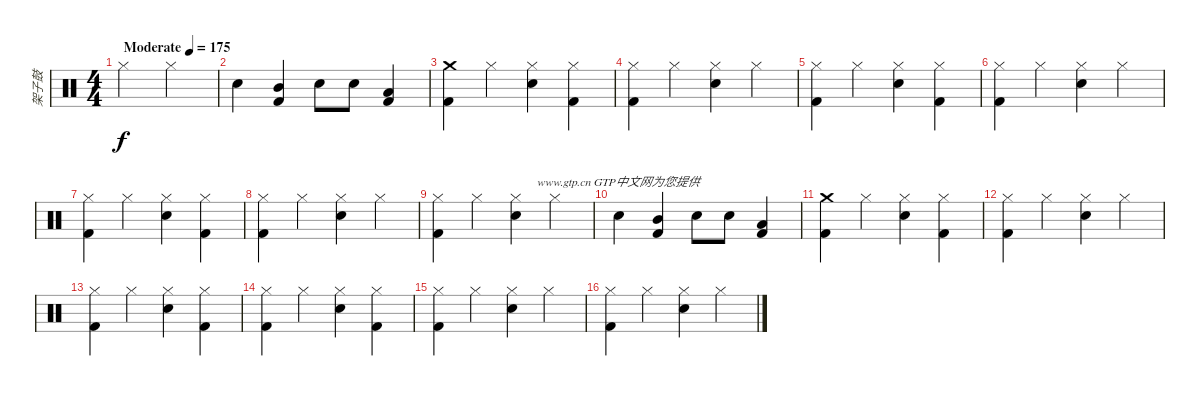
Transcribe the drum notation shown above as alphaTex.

\track ("架子鼓" "架子鼓") {instrument percussion}
\staff {score}
\articulation defaults
\ts (4 4)
\tempo (175 "Moderate")
\clef neutral
\ks c "Hi-Hat (closed)".2{dy f} "Hi-Hat (closed)".2
|
"Electric Snare (hit)".4 ("Kick (hit) 2" "Mid Tom (hit)").4 "Electric Snare (hit)".8 "Electric Snare (hit)".8 ("Kick (hit) 2" "Low Tom (hit)").4 |
("Crash medium (hit)" "Kick (hit) 2").4 "Hi-Hat (closed)".4 ("Hi-Hat (closed)" "Electric Snare (hit)").4 ("Hi-Hat (closed)" "Kick (hit) 2").4 |
("Hi-Hat (closed)" "Kick (hit) 2").4 "Hi-Hat (closed)".4 ("Hi-Hat (closed)" "Electric Snare (hit)").4 "Hi-Hat (closed)".4 |
("Hi-Hat (closed)" "Kick (hit) 2").4 "Hi-Hat (closed)".4 ("Hi-Hat (closed)" "Electric Snare (hit)").4 ("Hi-Hat (closed)" "Kick (hit) 2").4 |
("Hi-Hat (closed)" "Kick (hit) 2").4 "Hi-Hat (closed)".4 ("Hi-Hat (closed)" "Electric Snare (hit)").4 "Hi-Hat (closed)".4 |
("Hi-Hat (closed)" "Kick (hit) 2").4 "Hi-Hat (closed)".4 ("Hi-Hat (closed)" "Electric Snare (hit)").4 ("Hi-Hat (closed)" "Kick (hit) 2").4 |
("Hi-Hat (closed)" "Kick (hit) 2").4 "Hi-Hat (closed)".4 ("Hi-Hat (closed)" "Electric Snare (hit)").4 "Hi-Hat (closed)".4 |
("Hi-Hat (closed)" "Kick (hit) 2").4 "Hi-Hat (closed)".4{txt "                    www.gtp.cn GTP中文网为您提供"} ("Hi-Hat (closed)" "Electric Snare (hit)").4 "Hi-Hat (closed)".4 |
"Electric Snare (hit)".4 ("Kick (hit) 2" "Mid Tom (hit)").4 "Electric Snare (hit)".8 "Electric Snare (hit)".8 ("Kick (hit) 2" "Low Tom (hit)").4 |
("Crash medium (hit)" "Kick (hit) 2").4 "Hi-Hat (closed)".4 ("Hi-Hat (closed)" "Electric Snare (hit)").4 ("Hi-Hat (closed)" "Kick (hit) 2").4 |
("Hi-Hat (closed)" "Kick (hit) 2").4 "Hi-Hat (closed)".4 ("Hi-Hat (closed)" "Electric Snare (hit)").4 "Hi-Hat (closed)".4 |
("Hi-Hat (closed)" "Kick (hit) 2").4 "Hi-Hat (closed)".4 ("Hi-Hat (closed)" "Electric Snare (hit)").4 ("Hi-Hat (closed)" "Kick (hit) 2").4 |
("Hi-Hat (closed)" "Kick (hit) 2").4 "Hi-Hat (closed)".4 ("Hi-Hat (closed)" "Electric Snare (hit)").4 ("Hi-Hat (closed)" "Kick (hit) 2").4 |
("Hi-Hat (closed)" "Kick (hit) 2").4 "Hi-Hat (closed)".4 ("Hi-Hat (closed)" "Electric Snare (hit)").4 "Hi-Hat (closed)".4 |
("Hi-Hat (closed)" "Kick (hit) 2").4 "Hi-Hat (closed)".4 ("Hi-Hat (closed)" "Electric Snare (hit)").4 "Hi-Hat (closed)".4
